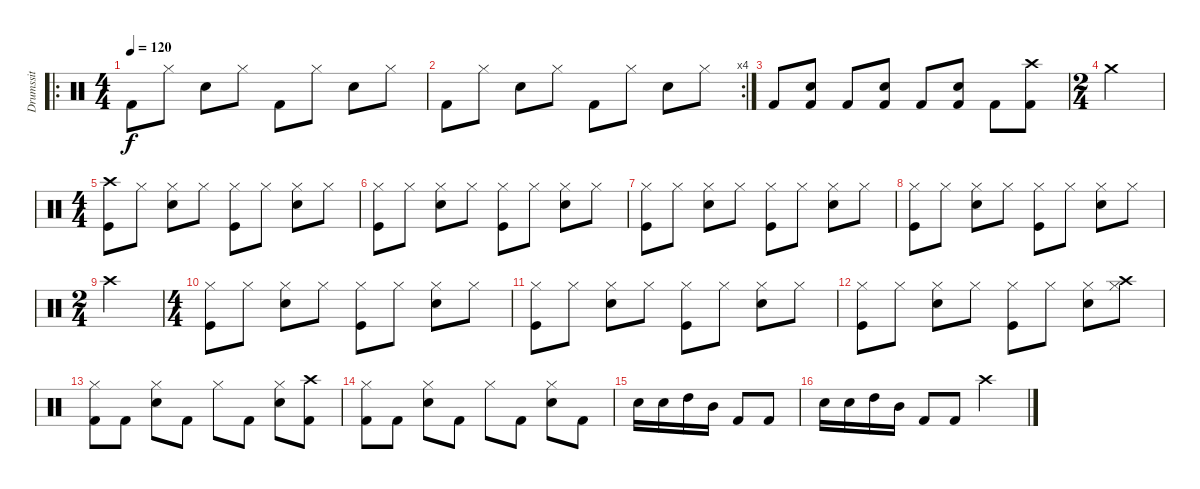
\track ("Drumssit" "Drumssit") {instrument percussion}
\staff {score}
\articulation defaults
\ro
\ts (4 4)
\tempo 120
\clef neutral
\ks c "Kick (hit) 2".8{dy f} "Hi-Hat (closed)".8 "Snare (hit) 2".8 "Hi-Hat (closed)".8 "Kick (hit) 2".8 "Hi-Hat (closed)".8 "Snare (hit) 2".8 "Hi-Hat (closed)".8
|
\rc 4 "Kick (hit) 2".8 "Hi-Hat (closed)".8 "Snare (hit) 2".8 "Hi-Hat (closed)".8 "Kick (hit) 2".8 "Hi-Hat (closed)".8 "Snare (hit) 2".8 "Hi-Hat (closed)".8
|
"Kick (hit) 2".8 ("Snare (hit) 2" "Kick (hit) 2").8 "Kick (hit) 2".8 ("Snare (hit) 2" "Kick (hit) 2").8 "Kick (hit) 2".8 ("Snare (hit) 2" "Kick (hit) 2").8 "Kick (hit) 2".8 ("Crash high (hit)" "Kick (hit) 2").8 |
\ts (2 4)
"Crash medium (hit)".2 |
\ts (4 4)
("Crash high (hit)" "Kick (hit)").8 "Hi-Hat (closed)".8 ("Hi-Hat (closed)" "Snare (hit) 2").8 "Hi-Hat (closed)".8 ("Hi-Hat (closed)" "Kick (hit)").8 "Hi-Hat (closed)".8 ("Hi-Hat (closed)" "Snare (hit) 2").8 "Hi-Hat (closed)".8 |
("Hi-Hat (closed)" "Kick (hit)").8 "Hi-Hat (closed)".8 ("Hi-Hat (closed)" "Snare (hit) 2").8 "Hi-Hat (closed)".8 ("Hi-Hat (closed)" "Kick (hit)").8 "Hi-Hat (closed)".8 ("Hi-Hat (closed)" "Snare (hit) 2").8 "Hi-Hat (closed)".8 |
("Hi-Hat (closed)" "Kick (hit)").8 "Hi-Hat (closed)".8 ("Hi-Hat (closed)" "Snare (hit) 2").8 "Hi-Hat (closed)".8 ("Hi-Hat (closed)" "Kick (hit)").8 "Hi-Hat (closed)".8 ("Hi-Hat (closed)" "Snare (hit) 2").8 "Hi-Hat (closed)".8 |
("Hi-Hat (closed)" "Kick (hit)").8 "Hi-Hat (closed)".8 ("Hi-Hat (closed)" "Snare (hit) 2").8 "Hi-Hat (closed)".8 ("Hi-Hat (closed)" "Kick (hit)").8 "Hi-Hat (closed)".8 ("Hi-Hat (closed)" "Snare (hit) 2").8 "Hi-Hat (closed)".8 |
\ts (2 4)
"Crash high (hit)".2 |
\ts (4 4)
("Hi-Hat (closed)" "Kick (hit)").8 "Hi-Hat (closed)".8 ("Hi-Hat (closed)" "Snare (hit) 2").8 "Hi-Hat (closed)".8 ("Hi-Hat (closed)" "Kick (hit)").8 "Hi-Hat (closed)".8 ("Hi-Hat (closed)" "Snare (hit) 2").8 "Hi-Hat (closed)".8 |
("Hi-Hat (closed)" "Kick (hit)").8 "Hi-Hat (closed)".8 ("Hi-Hat (closed)" "Snare (hit) 2").8 "Hi-Hat (closed)".8 ("Hi-Hat (closed)" "Kick (hit)").8 "Hi-Hat (closed)".8 ("Hi-Hat (closed)" "Snare (hit) 2").8 "Hi-Hat (closed)".8 |
("Hi-Hat (closed)" "Kick (hit)").8 "Hi-Hat (closed)".8 ("Hi-Hat (closed)" "Snare (hit) 2").8 "Hi-Hat (closed)".8 ("Hi-Hat (closed)" "Kick (hit)").8 "Hi-Hat (closed)".8 ("Hi-Hat (closed)" "Snare (hit) 2").8 ("Crash high (hit)" "Hi-Hat (closed)").8 |
("Kick (hit) 2" "Hi-Hat (closed)").8 "Kick (hit) 2".8 ("Hi-Hat (closed)" "Snare (hit) 2").8 "Kick (hit) 2".8 "Hi-Hat (closed)".8 "Kick (hit) 2".8 ("Hi-Hat (closed)" "Snare (hit) 2").8 ("Kick (hit) 2" "Crash high (hit)").8 |
("Kick (hit) 2" "Hi-Hat (closed)").8 "Kick (hit) 2".8 ("Hi-Hat (closed)" "Snare (hit) 2").8 "Kick (hit) 2".8 "Hi-Hat (closed)".8 "Kick (hit) 2".8 ("Hi-Hat (closed)" "Snare (hit) 2").8 "Kick (hit) 2".8 |
"Electric Snare (hit)".16 "Electric Snare (hit)".16 "High Tom (hit)".16 "Mid Tom (hit)".16 "Kick (hit) 2".8 "Kick (hit) 2".8 |
"Electric Snare (hit)".16 "Electric Snare (hit)".16 "High Tom (hit)".16 "Mid Tom (hit)".16 "Kick (hit) 2".8 "Kick (hit) 2".8 "Crash high (hit)".2
